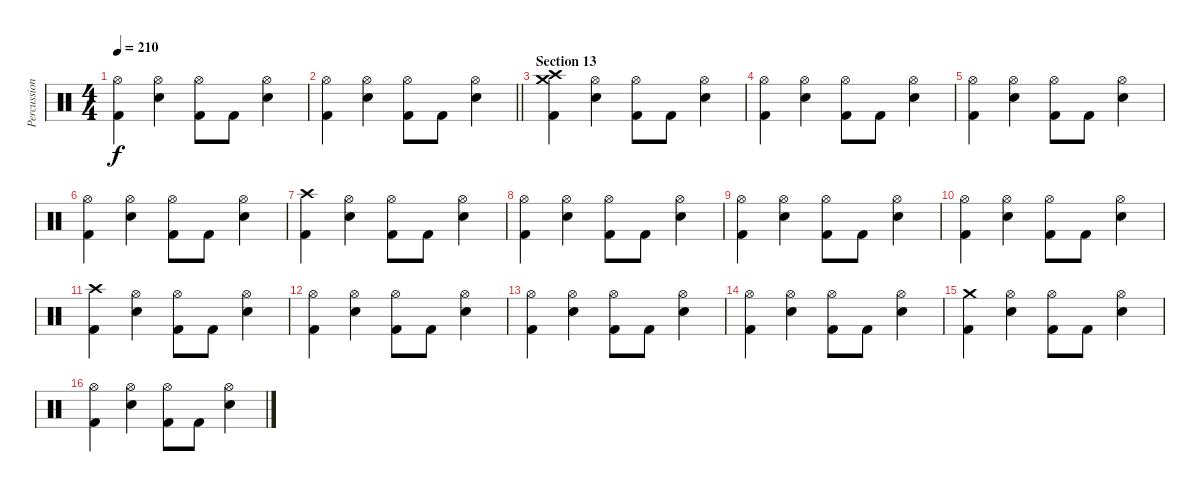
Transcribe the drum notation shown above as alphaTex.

\track ("Percussion" "Percussion") {instrument percussion}
\staff {score}
\articulation defaults
\ts (4 4)
\tempo 210
\clef neutral
\ks c
("Kick (hit) 2" "Hi-Hat (open)").4{dy f} ("Electric Snare (hit)" "Hi-Hat (open)").4 ("Kick (hit) 2" "Hi-Hat (open)").8 "Kick (hit) 2".8 ("Electric Snare (hit)" "Hi-Hat (open)").4 |
\barLineRight lightlight
("Kick (hit) 2" "Hi-Hat (open)").4 ("Electric Snare (hit)" "Hi-Hat (open)").4 ("Kick (hit) 2" "Hi-Hat (open)").8 "Kick (hit) 2".8 ("Electric Snare (hit)" "Hi-Hat (open)").4 |
\section ("" "Section 13")
("Kick (hit) 2" "Crash medium (hit)" "Crash high (hit)").4 ("Electric Snare (hit)" "Hi-Hat (open)").4 ("Kick (hit) 2" "Hi-Hat (open)").8 "Kick (hit) 2".8 ("Electric Snare (hit)" "Hi-Hat (open)").4 |
("Kick (hit) 2" "Hi-Hat (open)").4 ("Electric Snare (hit)" "Hi-Hat (open)").4 ("Kick (hit) 2" "Hi-Hat (open)").8 "Kick (hit) 2".8 ("Electric Snare (hit)" "Hi-Hat (open)").4 |
("Kick (hit) 2" "Hi-Hat (open)").4 ("Electric Snare (hit)" "Hi-Hat (open)").4 ("Kick (hit) 2" "Hi-Hat (open)").8 "Kick (hit) 2".8 ("Electric Snare (hit)" "Hi-Hat (open)").4 |
("Kick (hit) 2" "Hi-Hat (open)").4 ("Electric Snare (hit)" "Hi-Hat (open)").4 ("Kick (hit) 2" "Hi-Hat (open)").8 "Kick (hit) 2".8 ("Electric Snare (hit)" "Hi-Hat (open)").4 |
("Kick (hit) 2" "Crash high (hit)").4 ("Electric Snare (hit)" "Hi-Hat (open)").4 ("Kick (hit) 2" "Hi-Hat (open)").8 "Kick (hit) 2".8 ("Electric Snare (hit)" "Hi-Hat (open)").4 |
("Kick (hit) 2" "Hi-Hat (open)").4 ("Electric Snare (hit)" "Hi-Hat (open)").4 ("Kick (hit) 2" "Hi-Hat (open)").8 "Kick (hit) 2".8 ("Electric Snare (hit)" "Hi-Hat (open)").4 |
("Kick (hit) 2" "Hi-Hat (open)").4 ("Electric Snare (hit)" "Hi-Hat (open)").4 ("Kick (hit) 2" "Hi-Hat (open)").8 "Kick (hit) 2".8 ("Electric Snare (hit)" "Hi-Hat (open)").4 |
("Kick (hit) 2" "Hi-Hat (open)").4 ("Electric Snare (hit)" "Hi-Hat (open)").4 ("Kick (hit) 2" "Hi-Hat (open)").8 "Kick (hit) 2".8 ("Electric Snare (hit)" "Hi-Hat (open)").4 |
("Kick (hit) 2" "Crash high (hit)").4 ("Electric Snare (hit)" "Hi-Hat (open)").4 ("Kick (hit) 2" "Hi-Hat (open)").8 "Kick (hit) 2".8 ("Electric Snare (hit)" "Hi-Hat (open)").4 |
("Kick (hit) 2" "Hi-Hat (open)").4 ("Electric Snare (hit)" "Hi-Hat (open)").4 ("Kick (hit) 2" "Hi-Hat (open)").8 "Kick (hit) 2".8 ("Electric Snare (hit)" "Hi-Hat (open)").4 |
("Kick (hit) 2" "Hi-Hat (open)").4 ("Electric Snare (hit)" "Hi-Hat (open)").4 ("Kick (hit) 2" "Hi-Hat (open)").8 "Kick (hit) 2".8 ("Electric Snare (hit)" "Hi-Hat (open)").4 |
("Kick (hit) 2" "Hi-Hat (open)").4 ("Electric Snare (hit)" "Hi-Hat (open)").4 ("Kick (hit) 2" "Hi-Hat (open)").8 "Kick (hit) 2".8 ("Electric Snare (hit)" "Hi-Hat (open)").4 |
("Kick (hit) 2" "Crash medium (hit)").4 ("Electric Snare (hit)" "Hi-Hat (open)").4 ("Kick (hit) 2" "Hi-Hat (open)").8 "Kick (hit) 2".8 ("Electric Snare (hit)" "Hi-Hat (open)").4 |
("Kick (hit) 2" "Hi-Hat (open)").4 ("Electric Snare (hit)" "Hi-Hat (open)").4 ("Kick (hit) 2" "Hi-Hat (open)").8 "Kick (hit) 2".8 ("Electric Snare (hit)" "Hi-Hat (open)").4
